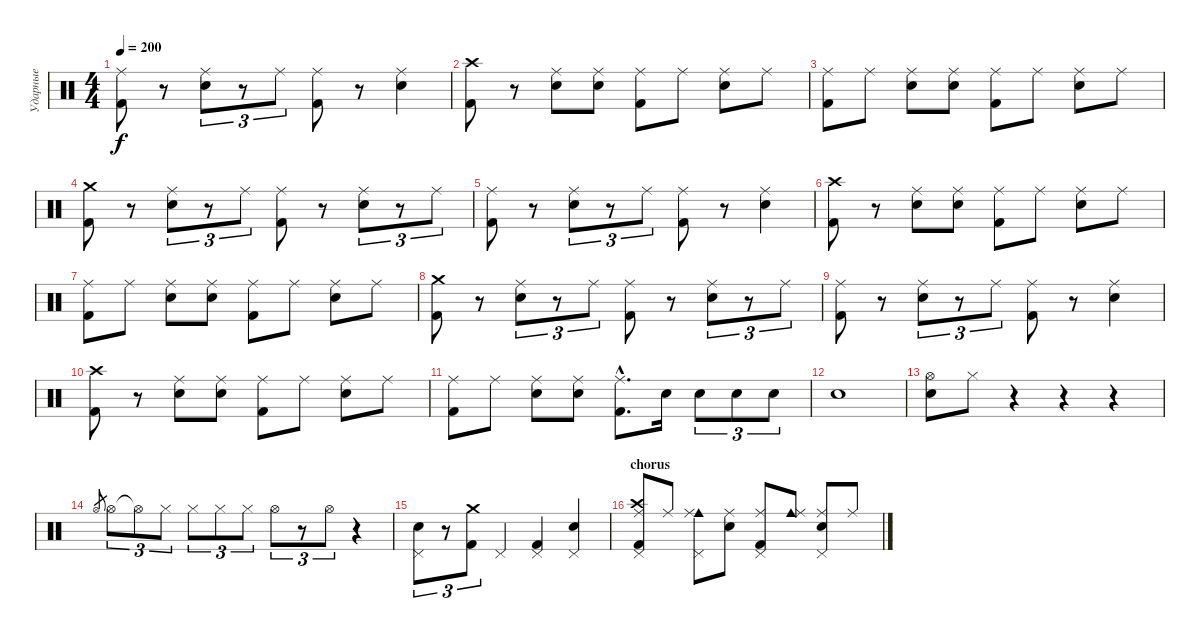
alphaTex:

\track ("Ударные" "Ударные") {instrument percussion}
\staff {score}
\articulation defaults
\ts (4 4)
\tempo 200
\clef neutral
\ks c
("Ride (middle)" "Kick (hit) 2").8{dy f} r.8 ("Ride (middle)" "Electric Snare (hit)").8{tu (3 2)} r.8{tu (3 2)} "Ride (middle)".8{tu (3 2)} ("Ride (middle)" "Kick (hit) 2").8 r.8 ("Ride (middle)" "Electric Snare (hit)").4 |
("Crash high (hit)" "Kick (hit) 2").8 r.8 ("Ride (middle)" "Electric Snare (hit)").8 ("Ride (middle)" "Electric Snare (hit)").8 ("Ride (middle)" "Kick (hit) 2").8 "Ride (middle)".8 ("Ride (middle)" "Electric Snare (hit)").8 "Ride (middle)".8 |
("Ride (middle)" "Kick (hit) 2").8 "Ride (middle)".8 ("Ride (middle)" "Electric Snare (hit)").8 ("Ride (middle)" "Electric Snare (hit)").8 ("Ride (middle)" "Kick (hit) 2").8 "Ride (middle)".8 ("Ride (middle)" "Electric Snare (hit)").8 "Ride (middle)".8 |
("Crash medium (hit)" "Kick (hit) 2").8 r.8 ("Ride (middle)" "Electric Snare (hit)").8{tu (3 2)} r.8{tu (3 2)} "Ride (middle)".8{tu (3 2)} ("Ride (middle)" "Kick (hit) 2").8 r.8 ("Ride (middle)" "Electric Snare (hit)").8{tu (3 2)} r.8{tu (3 2)} "Ride (middle)".8{tu (3 2)} |
("Ride (middle)" "Kick (hit) 2").8 r.8 ("Ride (middle)" "Electric Snare (hit)").8{tu (3 2)} r.8{tu (3 2)} "Ride (middle)".8{tu (3 2)} ("Ride (middle)" "Kick (hit) 2").8 r.8 ("Ride (middle)" "Electric Snare (hit)").4 |
("Crash high (hit)" "Kick (hit) 2").8 r.8 ("Ride (middle)" "Electric Snare (hit)").8 ("Ride (middle)" "Electric Snare (hit)").8 ("Ride (middle)" "Kick (hit) 2").8 "Ride (middle)".8 ("Ride (middle)" "Electric Snare (hit)").8 "Ride (middle)".8 |
("Ride (middle)" "Kick (hit) 2").8 "Ride (middle)".8 ("Ride (middle)" "Electric Snare (hit)").8 ("Ride (middle)" "Electric Snare (hit)").8 ("Ride (middle)" "Kick (hit) 2").8 "Ride (middle)".8 ("Ride (middle)" "Electric Snare (hit)").8 "Ride (middle)".8 |
("Crash medium (hit)" "Kick (hit) 2").8 r.8 ("Ride (middle)" "Electric Snare (hit)").8{tu (3 2)} r.8{tu (3 2)} "Ride (middle)".8{tu (3 2)} ("Ride (middle)" "Kick (hit) 2").8 r.8 ("Ride (middle)" "Electric Snare (hit)").8{tu (3 2)} r.8{tu (3 2)} "Ride (middle)".8{tu (3 2)} |
("Ride (middle)" "Kick (hit) 2").8 r.8 ("Ride (middle)" "Electric Snare (hit)").8{tu (3 2)} r.8{tu (3 2)} "Ride (middle)".8{tu (3 2)} ("Ride (middle)" "Kick (hit) 2").8 r.8 ("Ride (middle)" "Electric Snare (hit)").4 |
("Crash high (hit)" "Kick (hit) 2").8 r.8 ("Ride (middle)" "Electric Snare (hit)").8 ("Ride (middle)" "Electric Snare (hit)").8 ("Ride (middle)" "Kick (hit) 2").8 "Ride (middle)".8 ("Ride (middle)" "Electric Snare (hit)").8 "Ride (middle)".8 |
("Ride (middle)" "Kick (hit) 2").8 "Ride (middle)".8 ("Ride (middle)" "Electric Snare (hit)").8 ("Ride (middle)" "Electric Snare (hit)").8 ("Ride (middle)"{hac} "Kick (hit) 2"{hac}).8{d} "Electric Snare (hit)".16 "Electric Snare (hit)".8{tu (3 2)} "Electric Snare (hit)".8{tu (3 2)} "Electric Snare (hit)".8{tu (3 2)} |
"Electric Snare (hit)".1 |
("Hi-Hat (open)" "Electric Snare (hit)").8 "Hi-Hat (closed)".8 r.4 r.4 r.4 |
"Hi-Hat (open)".8{gr} "Hi-Hat (open)".8{tu (3 2)} "Hi-Hat (open)"{t}.8{tu (3 2)} "Hi-Hat (closed)".8{tu (3 2)} "Hi-Hat (closed)".8{tu (3 2)} "Hi-Hat (closed)".8{tu (3 2)} "Hi-Hat (closed)".8{tu (3 2)} "Hi-Hat (open)".8{tu (3 2)} r.8{tu (3 2)} "Hi-Hat (open)".8{tu (3 2)} r.4 |
("Electric Snare (hit)" "Pedal Hi-Hat (hit)").8{tu (3 2)} r.8{tu (3 2)} ("Crash medium (hit)" "Kick (hit) 2").8{tu (3 2)} "Pedal Hi-Hat (hit)".4 ("Kick (hit) 2" "Pedal Hi-Hat (hit)").4 ("Electric Snare (hit)" "Pedal Hi-Hat (hit)").4 |
\section ("" "chorus")
("Crash high (hit)" "Ride (middle)" "Kick (hit) 2" "Pedal Hi-Hat (hit)").8 "Ride (middle)".8 ("Cowbell medium (hit)" "Ride (middle)" "Pedal Hi-Hat (hit)").8 ("Electric Snare (hit)" "Ride (middle)").8 ("Ride (middle)" "Kick (hit) 2" "Pedal Hi-Hat (hit)").8 ("Cowbell medium (hit)" "Ride (middle)").8 ("Electric Snare (hit)" "Ride (middle)" "Pedal Hi-Hat (hit)").8 "Ride (middle)".8
